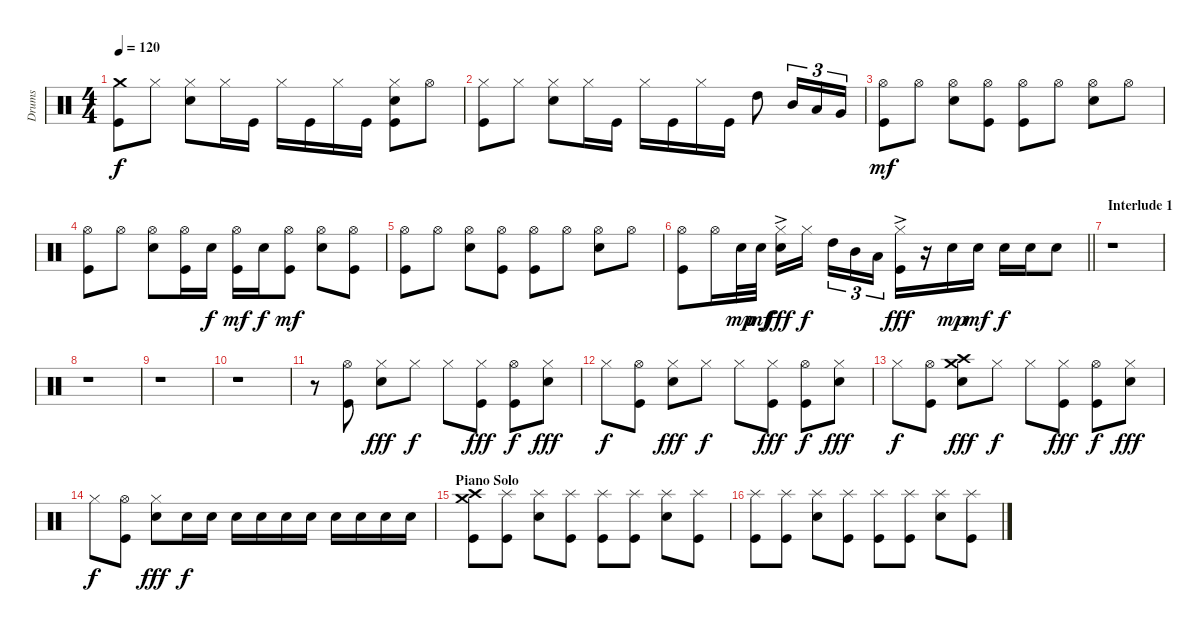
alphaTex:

\track ("Drums" "Drums") {instrument percussion}
\staff {score}
\articulation defaults
\ts (4 4)
\tempo 120
\clef neutral
\ks c
("Crash medium (hit)" "Kick (hit)").8{dy f} "Hi-Hat (closed)".8 ("Hi-Hat (closed)" "Electric Snare (hit)").8 "Hi-Hat (closed)".16 "Kick (hit)".16 "Hi-Hat (closed)".16 "Kick (hit)".16 "Hi-Hat (closed)".16 "Kick (hit)".16 ("Hi-Hat (closed)" "Electric Snare (hit)" "Kick (hit)").8 "Hi-Hat (open)".8 |
("Hi-Hat (closed)" "Kick (hit)").8 "Hi-Hat (closed)".8 ("Hi-Hat (closed)" "Electric Snare (hit)").8 "Hi-Hat (closed)".16 "Kick (hit)".16 "Hi-Hat (closed)".16 "Kick (hit)".16 "Hi-Hat (closed)".16 "Kick (hit)".16 "High Tom (hit)".8 "Mid Tom (hit)".16{tu (3 2)} "Low Tom (hit)".16{tu (3 2)} "Very Low Tom (hit)".16{tu (3 2)} |
("Hi-Hat (open)" "Kick (hit)").8{dy mf} "Hi-Hat (open)".8 ("Hi-Hat (open)" "Electric Snare (hit)").8 ("Hi-Hat (open)" "Kick (hit)").8 ("Hi-Hat (open)" "Kick (hit)").8 "Hi-Hat (open)".8 ("Hi-Hat (open)" "Electric Snare (hit)").8 "Hi-Hat (open)".8 |
("Hi-Hat (open)" "Kick (hit)").8 "Hi-Hat (open)".8 ("Hi-Hat (open)" "Electric Snare (hit)").8 ("Hi-Hat (open)" "Kick (hit)").16 "Electric Snare (hit)".16{dy f} ("Hi-Hat (open)" "Kick (hit)").16{dy mf} "Electric Snare (hit)".16{dy f} ("Hi-Hat (open)" "Kick (hit)").8{dy mf} ("Hi-Hat (open)" "Electric Snare (hit)").8 ("Hi-Hat (open)" "Kick (hit)").8 |
("Hi-Hat (open)" "Kick (hit)").8 "Hi-Hat (open)".8 ("Hi-Hat (open)" "Electric Snare (hit)").8 ("Hi-Hat (open)" "Kick (hit)").8 ("Hi-Hat (open)" "Kick (hit)").8 "Hi-Hat (open)".8 ("Hi-Hat (open)" "Electric Snare (hit)").8 "Hi-Hat (open)".8 |
\barLineRight lightlight
("Hi-Hat (open)" "Kick (hit)").8 "Hi-Hat (open)".16 "Electric Snare (hit)".32{dy mp} "Electric Snare (hit)".32{dy mf} ("Hi-Hat (closed)"{ac} "Electric Snare (hit)").16{dy fff} "Hi-Hat (closed)".16{dy f} "High Tom (hit)".16{tu (3 2)} "Mid Tom (hit)".16{tu (3 2)} "Low Tom (hit)".16{tu (3 2)} ("Hi-Hat (closed)"{ac} "Kick (hit)").16{dy fff} r.16 "Electric Snare (hit)".16{dy mp} "Electric Snare (hit)".16{dy mf} "Electric Snare (hit)".16{dy f} "Electric Snare (hit)".16 "Electric Snare (hit)".8 |
\section ("" "Interlude 1")
r.1 |
r.1 |
r.1 |
r.1 |
r.8 ("Hi-Hat (open)" "Kick (hit)").8 ("Hi-Hat (closed)" "Electric Snare (hit)").8{dy fff} "Hi-Hat (closed)".8{dy f} "Hi-Hat (closed)".8 ("Hi-Hat (closed)" "Kick (hit)").8{dy fff} ("Hi-Hat (open)" "Kick (hit)").8{dy f} ("Hi-Hat (closed)" "Electric Snare (hit)").8{dy fff} |
"Hi-Hat (closed)".8{dy f} ("Hi-Hat (open)" "Kick (hit)").8 ("Hi-Hat (closed)" "Electric Snare (hit)").8{dy fff} "Hi-Hat (closed)".8{dy f} "Hi-Hat (closed)".8 ("Hi-Hat (closed)" "Kick (hit)").8{dy fff} ("Hi-Hat (open)" "Kick (hit)").8{dy f} ("Hi-Hat (closed)" "Electric Snare (hit)").8{dy fff} |
"Hi-Hat (closed)".8{dy f} ("Hi-Hat (open)" "Kick (hit)").8 ("Crash medium (hit)" "Crash high (hit)" "Electric Snare (hit)").8{dy fff} "Hi-Hat (closed)".8{dy f} "Hi-Hat (closed)".8 ("Hi-Hat (closed)" "Kick (hit)").8{dy fff} ("Hi-Hat (open)" "Kick (hit)").8{dy f} ("Hi-Hat (closed)" "Electric Snare (hit)").8{dy fff} |
"Hi-Hat (closed)".8{dy f} ("Hi-Hat (open)" "Kick (hit)").8 ("Hi-Hat (closed)" "Electric Snare (hit)").8{dy fff} "Electric Snare (hit)".16{dy f} "Electric Snare (hit)".16 "Electric Snare (hit)".16 "Electric Snare (hit)".16 "Electric Snare (hit)".16 "Electric Snare (hit)".16 "Electric Snare (hit)".16 "Electric Snare (hit)".16 "Electric Snare (hit)".16 "Electric Snare (hit)".16 |
\section ("" "Piano Solo")
("Crash medium (hit)" "Crash high (hit)" "Kick (hit)").8 ("Splash (hit)" "Kick (hit)").8 ("Splash (hit)" "Electric Snare (hit)").8 ("Splash (hit)" "Kick (hit)").8 ("Splash (hit)" "Kick (hit)").8 ("Splash (hit)" "Kick (hit)").8 ("Splash (hit)" "Electric Snare (hit)").8 ("Splash (hit)" "Kick (hit)").8 |
("Splash (hit)" "Kick (hit)").8 ("Splash (hit)" "Kick (hit)").8 ("Splash (hit)" "Electric Snare (hit)").8 ("Splash (hit)" "Kick (hit)").8 ("Splash (hit)" "Kick (hit)").8 ("Splash (hit)" "Kick (hit)").8 ("Splash (hit)" "Electric Snare (hit)").8 ("Splash (hit)" "Kick (hit)").8
